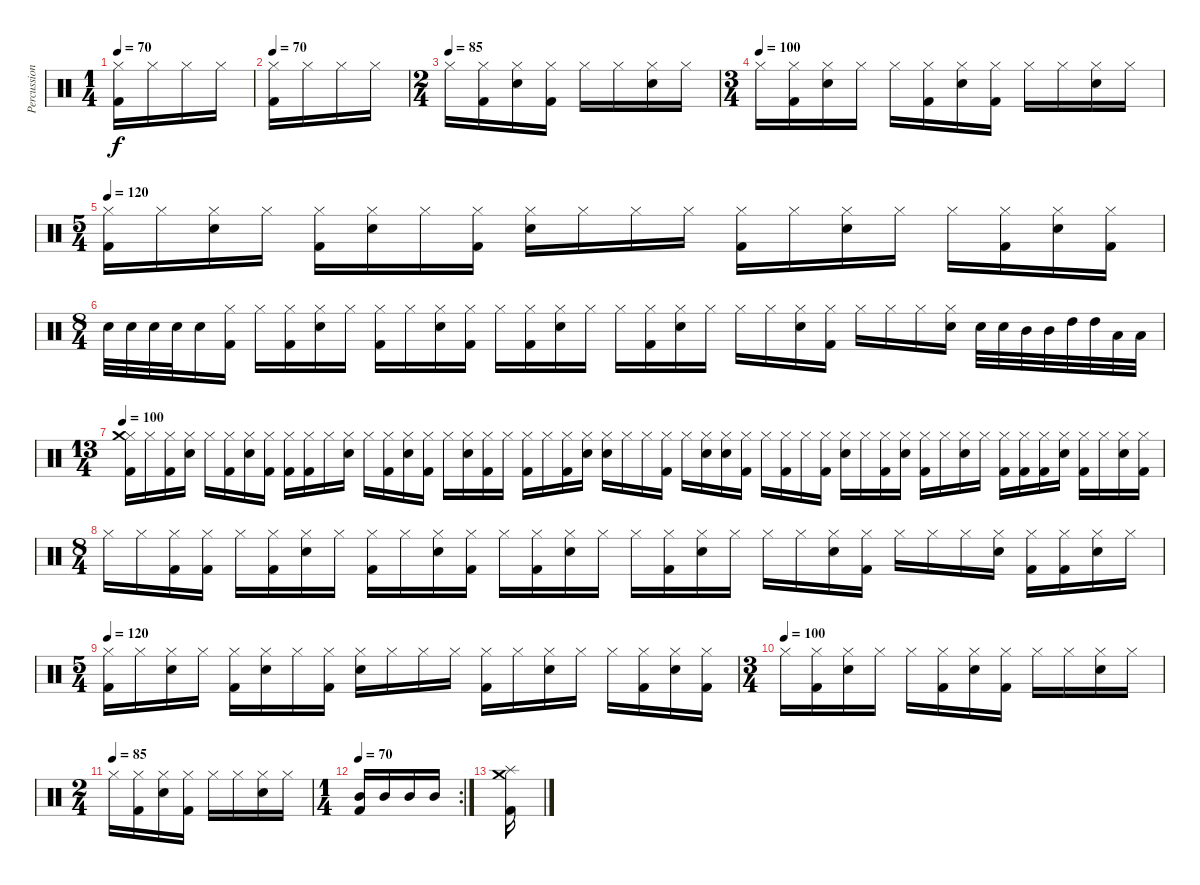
\track ("Percussion" "Percussion") {instrument percussion}
\staff {score}
\articulation defaults
\ts (1 4)
\tempo 70
\clef neutral
\ks c
("Hi-Hat (closed)" "Kick (hit) 2").16{dy f} "Hi-Hat (closed)".16 "Hi-Hat (closed)".16 "Hi-Hat (closed)".16 |
\tempo 70
("Hi-Hat (closed)" "Kick (hit) 2").16 "Hi-Hat (closed)".16 "Hi-Hat (closed)".16 "Hi-Hat (closed)".16 |
\ts (2 4)
\tempo (85)
"Hi-Hat (closed)".16 ("Hi-Hat (closed)" "Kick (hit) 2").16 ("Hi-Hat (closed)" "Snare (hit) 2").16 ("Hi-Hat (closed)" "Kick (hit) 2").16 "Hi-Hat (closed)".16 "Hi-Hat (closed)".16 ("Hi-Hat (closed)" "Snare (hit) 2").16 "Hi-Hat (closed)".16 |
\ts (3 4)
\tempo (100)
"Hi-Hat (closed)".16 ("Hi-Hat (closed)" "Kick (hit) 2").16 ("Hi-Hat (closed)" "Snare (hit) 2").16 "Hi-Hat (closed)".16 "Hi-Hat (closed)".16 ("Hi-Hat (closed)" "Kick (hit) 2").16 ("Hi-Hat (closed)" "Snare (hit) 2").16 ("Hi-Hat (closed)" "Kick (hit) 2").16 "Hi-Hat (closed)".16 "Hi-Hat (closed)".16 ("Hi-Hat (closed)" "Snare (hit) 2").16 "Hi-Hat (closed)".16 |
\ts (5 4)
\tempo 120
("Hi-Hat (closed)" "Kick (hit) 2").16 "Hi-Hat (closed)".16 ("Hi-Hat (closed)" "Snare (hit) 2").16 "Hi-Hat (closed)".16 ("Hi-Hat (closed)" "Kick (hit) 2").16 ("Hi-Hat (closed)" "Snare (hit) 2").16 "Hi-Hat (closed)".16 ("Hi-Hat (closed)" "Kick (hit) 2").16 ("Hi-Hat (closed)" "Snare (hit) 2").16 "Hi-Hat (closed)".16 "Hi-Hat (closed)".16 "Hi-Hat (closed)".16 ("Hi-Hat (closed)" "Kick (hit) 2").16 "Hi-Hat (closed)".16 ("Hi-Hat (closed)" "Snare (hit) 2").16 "Hi-Hat (closed)".16 "Hi-Hat (closed)".16 ("Hi-Hat (closed)" "Kick (hit) 2").16 ("Hi-Hat (closed)" "Snare (hit) 2").16 ("Hi-Hat (closed)" "Kick (hit) 2").16 |
\ts (8 4)
"Snare (hit) 2".32 "Snare (hit) 2".32 "Snare (hit) 2".32 "Snare (hit) 2".32 "Snare (hit) 2".16 ("Hi-Hat (closed)" "Kick (hit) 2").16 "Hi-Hat (closed)".16 ("Hi-Hat (closed)" "Kick (hit) 2").16 ("Hi-Hat (closed)" "Snare (hit) 2").16 "Hi-Hat (closed)".16 ("Hi-Hat (closed)" "Kick (hit) 2").16 "Hi-Hat (closed)".16 ("Hi-Hat (closed)" "Snare (hit) 2").16 ("Hi-Hat (closed)" "Kick (hit) 2").16 "Hi-Hat (closed)".16 ("Hi-Hat (closed)" "Kick (hit) 2").16 ("Hi-Hat (closed)" "Snare (hit) 2").16 "Hi-Hat (closed)".16 "Hi-Hat (closed)".16 ("Hi-Hat (closed)" "Kick (hit) 2").16 ("Hi-Hat (closed)" "Snare (hit) 2").16 "Hi-Hat (closed)".16 "Hi-Hat (closed)".16 "Hi-Hat (closed)".16 ("Hi-Hat (closed)" "Snare (hit) 2").16 ("Hi-Hat (closed)" "Kick (hit) 2").16 "Hi-Hat (closed)".16 "Hi-Hat (closed)".16 "Hi-Hat (closed)".16 ("Hi-Hat (closed)" "Snare (hit) 2").16 "Snare (hit) 2".32 "Snare (hit) 2".32 "Mid Tom (hit)".32 "Mid Tom (hit)".32 "High Tom (hit)".32 "High Tom (hit)".32 "Low Tom (hit)".32 "Low Tom (hit)".32 |
\ts (13 4)
\tempo 100
("Hi-Hat (closed)" "Crash medium (hit)" "Kick (hit) 2").16 "Hi-Hat (closed)".16 ("Hi-Hat (closed)" "Kick (hit) 2").16 ("Hi-Hat (closed)" "Snare (hit) 2").16 "Hi-Hat (closed)".16 ("Hi-Hat (closed)" "Kick (hit) 2").16 ("Hi-Hat (closed)" "Snare (hit) 2").16 ("Hi-Hat (closed)" "Kick (hit) 2").16 ("Hi-Hat (closed)" "Kick (hit) 2").16 ("Hi-Hat (closed)" "Kick (hit) 2").16 "Hi-Hat (closed)".16 ("Hi-Hat (closed)" "Snare (hit) 2").16 "Hi-Hat (closed)".16 ("Hi-Hat (closed)" "Kick (hit) 2").16 ("Hi-Hat (closed)" "Snare (hit) 2").16 ("Hi-Hat (closed)" "Kick (hit) 2").16 "Hi-Hat (closed)".16 ("Hi-Hat (closed)" "Snare (hit) 2").16 ("Hi-Hat (closed)" "Kick (hit) 2").16 "Hi-Hat (closed)".16 ("Hi-Hat (closed)" "Kick (hit) 2").16 "Hi-Hat (closed)".16 ("Hi-Hat (closed)" "Kick (hit) 2").16 ("Hi-Hat (closed)" "Snare (hit) 2").16 ("Hi-Hat (closed)" "Snare (hit) 2").16 "Hi-Hat (closed)".16 "Hi-Hat (closed)".16 ("Hi-Hat (closed)" "Kick (hit) 2").16 "Hi-Hat (closed)".16 ("Hi-Hat (closed)" "Snare (hit) 2").16 ("Hi-Hat (closed)" "Snare (hit) 2").16 ("Hi-Hat (closed)" "Kick (hit) 2").16 "Hi-Hat (closed)".16 ("Hi-Hat (closed)" "Kick (hit) 2").16 "Hi-Hat (closed)".16 ("Hi-Hat (closed)" "Kick (hit) 2").16 ("Hi-Hat (closed)" "Snare (hit) 2").16 "Hi-Hat (closed)".16 ("Hi-Hat (closed)" "Kick (hit) 2").16 ("Hi-Hat (closed)" "Snare (hit) 2").16 ("Hi-Hat (closed)" "Kick (hit) 2").16 "Hi-Hat (closed)".16 ("Hi-Hat (closed)" "Snare (hit) 2").16 "Hi-Hat (closed)".16 ("Hi-Hat (closed)" "Kick (hit) 2").16 ("Hi-Hat (closed)" "Kick (hit) 2").16 ("Hi-Hat (closed)" "Kick (hit) 2").16 ("Hi-Hat (closed)" "Snare (hit) 2").16 ("Hi-Hat (closed)" "Kick (hit) 2").16 "Hi-Hat (closed)".16 ("Hi-Hat (closed)" "Snare (hit) 2").16 ("Hi-Hat (closed)" "Kick (hit) 2").16 |
\ts (8 4)
"Hi-Hat (closed)".16 "Hi-Hat (closed)".16 ("Hi-Hat (closed)" "Kick (hit) 2").16 ("Hi-Hat (closed)" "Kick (hit) 2").16 "Hi-Hat (closed)".16 ("Hi-Hat (closed)" "Kick (hit) 2").16 ("Hi-Hat (closed)" "Snare (hit) 2").16 "Hi-Hat (closed)".16 ("Hi-Hat (closed)" "Kick (hit) 2").16 "Hi-Hat (closed)".16 ("Hi-Hat (closed)" "Snare (hit) 2").16 ("Hi-Hat (closed)" "Kick (hit) 2").16 "Hi-Hat (closed)".16 ("Hi-Hat (closed)" "Kick (hit) 2").16 ("Hi-Hat (closed)" "Snare (hit) 2").16 "Hi-Hat (closed)".16 "Hi-Hat (closed)".16 ("Hi-Hat (closed)" "Kick (hit) 2").16 ("Hi-Hat (closed)" "Snare (hit) 2").16 "Hi-Hat (closed)".16 "Hi-Hat (closed)".16 "Hi-Hat (closed)".16 ("Hi-Hat (closed)" "Snare (hit) 2").16 ("Hi-Hat (closed)" "Kick (hit) 2").16 "Hi-Hat (closed)".16 "Hi-Hat (closed)".16 "Hi-Hat (closed)".16 ("Hi-Hat (closed)" "Snare (hit) 2").16 ("Hi-Hat (closed)" "Kick (hit) 2").16 ("Hi-Hat (closed)" "Kick (hit) 2").16 ("Hi-Hat (closed)" "Snare (hit) 2").16 "Hi-Hat (closed)".16 |
\ts (5 4)
\tempo 120
("Hi-Hat (closed)" "Kick (hit) 2").16 "Hi-Hat (closed)".16 ("Hi-Hat (closed)" "Snare (hit) 2").16 "Hi-Hat (closed)".16 ("Hi-Hat (closed)" "Kick (hit) 2").16 ("Hi-Hat (closed)" "Snare (hit) 2").16 "Hi-Hat (closed)".16 ("Hi-Hat (closed)" "Kick (hit) 2").16 ("Hi-Hat (closed)" "Snare (hit) 2").16 "Hi-Hat (closed)".16 "Hi-Hat (closed)".16 "Hi-Hat (closed)".16 ("Hi-Hat (closed)" "Kick (hit) 2").16 "Hi-Hat (closed)".16 ("Hi-Hat (closed)" "Snare (hit) 2").16 "Hi-Hat (closed)".16 "Hi-Hat (closed)".16 ("Hi-Hat (closed)" "Kick (hit) 2").16 ("Hi-Hat (closed)" "Snare (hit) 2").16 ("Hi-Hat (closed)" "Kick (hit) 2").16 |
\ts (3 4)
\tempo (100)
"Hi-Hat (closed)".16 ("Hi-Hat (closed)" "Kick (hit) 2").16 ("Hi-Hat (closed)" "Snare (hit) 2").16 "Hi-Hat (closed)".16 "Hi-Hat (closed)".16 ("Hi-Hat (closed)" "Kick (hit) 2").16 ("Hi-Hat (closed)" "Snare (hit) 2").16 ("Hi-Hat (closed)" "Kick (hit) 2").16 "Hi-Hat (closed)".16 "Hi-Hat (closed)".16 ("Hi-Hat (closed)" "Snare (hit) 2").16 "Hi-Hat (closed)".16 |
\ts (2 4)
\tempo (85)
"Hi-Hat (closed)".16 ("Hi-Hat (closed)" "Kick (hit) 2").16 ("Hi-Hat (closed)" "Snare (hit) 2").16 ("Hi-Hat (closed)" "Kick (hit) 2").16 "Hi-Hat (closed)".16 "Hi-Hat (closed)".16 ("Hi-Hat (closed)" "Snare (hit) 2").16 "Hi-Hat (closed)".16 |
\rc 2
\ts (1 4)
\tempo 70
("Mid Tom (hit)" "Kick (hit) 2").16 "Mid Tom (hit)".16 "Mid Tom (hit)".16 "Mid Tom (hit)".16 |
("Kick (hit) 2" "Splash (hit)" "Crash medium (hit)").16
